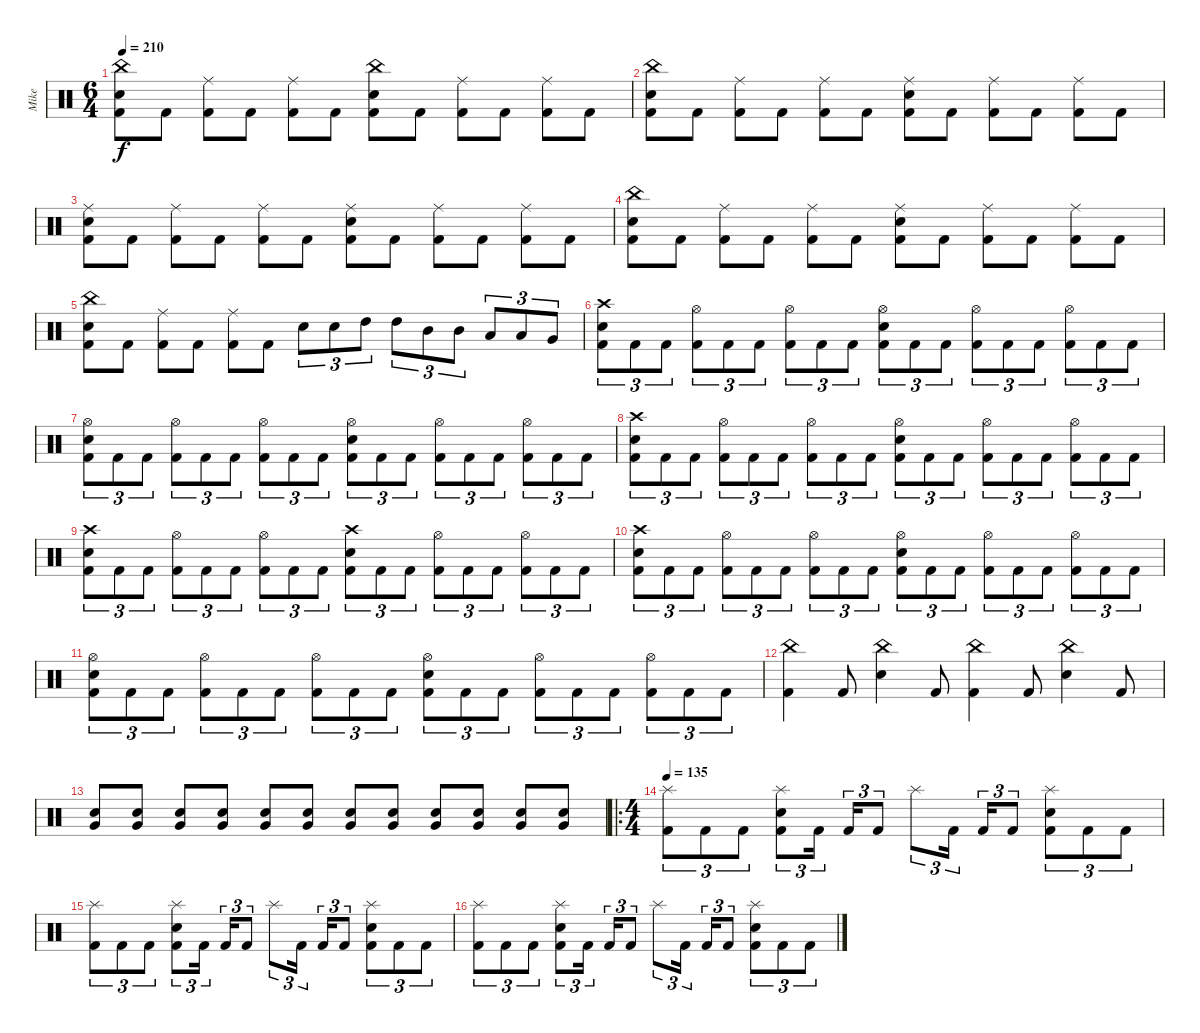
\track ("Mike" "Mike") {instrument percussion}
\staff {score}
\articulation defaults
\ts (6 4)
\tempo 210
\clef neutral
\ks c
("Kick (hit) 2" "Electric Snare (hit)" "China (hit)").8{dy f} "Kick (hit) 2".8 ("Kick (hit) 2" "Ride (middle)").8 "Kick (hit) 2".8 ("Kick (hit) 2" "Ride (middle)").8 "Kick (hit) 2".8 ("Kick (hit) 2" "Electric Snare (hit)" "China (hit)").8 "Kick (hit) 2".8 ("Kick (hit) 2" "Ride (middle)").8 "Kick (hit) 2".8 ("Kick (hit) 2" "Ride (middle)").8 "Kick (hit) 2".8 |
("Kick (hit) 2" "Electric Snare (hit)" "China (hit)").8 "Kick (hit) 2".8 ("Kick (hit) 2" "Ride (middle)").8 "Kick (hit) 2".8 ("Kick (hit) 2" "Ride (middle)").8 "Kick (hit) 2".8 ("Kick (hit) 2" "Electric Snare (hit)" "Ride (middle)").8 "Kick (hit) 2".8 ("Kick (hit) 2" "Ride (middle)").8 "Kick (hit) 2".8 ("Kick (hit) 2" "Ride (middle)").8 "Kick (hit) 2".8 |
("Kick (hit) 2" "Electric Snare (hit)" "Ride (middle)").8 "Kick (hit) 2".8 ("Kick (hit) 2" "Ride (middle)").8 "Kick (hit) 2".8 ("Kick (hit) 2" "Ride (middle)").8 "Kick (hit) 2".8 ("Kick (hit) 2" "Electric Snare (hit)" "Ride (middle)").8 "Kick (hit) 2".8 ("Kick (hit) 2" "Ride (middle)").8 "Kick (hit) 2".8 ("Kick (hit) 2" "Ride (middle)").8 "Kick (hit) 2".8 |
("Kick (hit) 2" "Electric Snare (hit)" "China (hit)").8 "Kick (hit) 2".8 ("Kick (hit) 2" "Ride (middle)").8 "Kick (hit) 2".8 ("Kick (hit) 2" "Ride (middle)").8 "Kick (hit) 2".8 ("Kick (hit) 2" "Electric Snare (hit)" "Ride (middle)").8 "Kick (hit) 2".8 ("Kick (hit) 2" "Ride (middle)").8 "Kick (hit) 2".8 ("Kick (hit) 2" "Ride (middle)").8 "Kick (hit) 2".8 |
("Kick (hit) 2" "Electric Snare (hit)" "China (hit)").8 "Kick (hit) 2".8 ("Kick (hit) 2" "Ride (middle)").8 "Kick (hit) 2".8 ("Kick (hit) 2" "Ride (middle)").8 "Kick (hit) 2".8 "Electric Snare (hit)".8{tu (3 2)} "Electric Snare (hit)".8{tu (3 2)} "High Tom (hit)".8{tu (3 2)} "High Tom (hit)".8{tu (3 2)} "Mid Tom (hit)".8{tu (3 2)} "Mid Tom (hit)".8{tu (3 2)} "Low Tom (hit)".8{tu (3 2)} "Low Tom (hit)".8{tu (3 2)} "Very Low Tom (hit)".8{tu (3 2)} |
("Kick (hit) 2" "Electric Snare (hit)" "Crash high (hit)").8{tu (3 2)} "Kick (hit) 2".8{tu (3 2)} "Kick (hit) 2".8{tu (3 2)} ("Kick (hit) 2" "Hi-Hat (open)").8{tu (3 2)} "Kick (hit) 2".8{tu (3 2)} "Kick (hit) 2".8{tu (3 2)} ("Kick (hit) 2" "Hi-Hat (open)").8{tu (3 2)} "Kick (hit) 2".8{tu (3 2)} "Kick (hit) 2".8{tu (3 2)} ("Kick (hit) 2" "Electric Snare (hit)" "Hi-Hat (open)").8{tu (3 2)} "Kick (hit) 2".8{tu (3 2)} "Kick (hit) 2".8{tu (3 2)} ("Kick (hit) 2" "Hi-Hat (open)").8{tu (3 2)} "Kick (hit) 2".8{tu (3 2)} "Kick (hit) 2".8{tu (3 2)} ("Kick (hit) 2" "Hi-Hat (open)").8{tu (3 2)} "Kick (hit) 2".8{tu (3 2)} "Kick (hit) 2".8{tu (3 2)} |
("Kick (hit) 2" "Electric Snare (hit)" "Hi-Hat (open)").8{tu (3 2)} "Kick (hit) 2".8{tu (3 2)} "Kick (hit) 2".8{tu (3 2)} ("Kick (hit) 2" "Hi-Hat (open)").8{tu (3 2)} "Kick (hit) 2".8{tu (3 2)} "Kick (hit) 2".8{tu (3 2)} ("Kick (hit) 2" "Hi-Hat (open)").8{tu (3 2)} "Kick (hit) 2".8{tu (3 2)} "Kick (hit) 2".8{tu (3 2)} ("Kick (hit) 2" "Electric Snare (hit)" "Hi-Hat (open)").8{tu (3 2)} "Kick (hit) 2".8{tu (3 2)} "Kick (hit) 2".8{tu (3 2)} ("Kick (hit) 2" "Hi-Hat (open)").8{tu (3 2)} "Kick (hit) 2".8{tu (3 2)} "Kick (hit) 2".8{tu (3 2)} ("Kick (hit) 2" "Hi-Hat (open)").8{tu (3 2)} "Kick (hit) 2".8{tu (3 2)} "Kick (hit) 2".8{tu (3 2)} |
("Kick (hit) 2" "Electric Snare (hit)" "Crash high (hit)").8{tu (3 2)} "Kick (hit) 2".8{tu (3 2)} "Kick (hit) 2".8{tu (3 2)} ("Kick (hit) 2" "Hi-Hat (open)").8{tu (3 2)} "Kick (hit) 2".8{tu (3 2)} "Kick (hit) 2".8{tu (3 2)} ("Kick (hit) 2" "Hi-Hat (open)").8{tu (3 2)} "Kick (hit) 2".8{tu (3 2)} "Kick (hit) 2".8{tu (3 2)} ("Kick (hit) 2" "Electric Snare (hit)" "Hi-Hat (open)").8{tu (3 2)} "Kick (hit) 2".8{tu (3 2)} "Kick (hit) 2".8{tu (3 2)} ("Kick (hit) 2" "Hi-Hat (open)").8{tu (3 2)} "Kick (hit) 2".8{tu (3 2)} "Kick (hit) 2".8{tu (3 2)} ("Kick (hit) 2" "Hi-Hat (open)").8{tu (3 2)} "Kick (hit) 2".8{tu (3 2)} "Kick (hit) 2".8{tu (3 2)} |
("Kick (hit) 2" "Electric Snare (hit)" "Crash high (hit)").8{tu (3 2)} "Kick (hit) 2".8{tu (3 2)} "Kick (hit) 2".8{tu (3 2)} ("Kick (hit) 2" "Hi-Hat (open)").8{tu (3 2)} "Kick (hit) 2".8{tu (3 2)} "Kick (hit) 2".8{tu (3 2)} ("Kick (hit) 2" "Hi-Hat (open)").8{tu (3 2)} "Kick (hit) 2".8{tu (3 2)} "Kick (hit) 2".8{tu (3 2)} ("Kick (hit) 2" "Electric Snare (hit)" "Crash high (hit)").8{tu (3 2)} "Kick (hit) 2".8{tu (3 2)} "Kick (hit) 2".8{tu (3 2)} ("Kick (hit) 2" "Hi-Hat (open)").8{tu (3 2)} "Kick (hit) 2".8{tu (3 2)} "Kick (hit) 2".8{tu (3 2)} ("Kick (hit) 2" "Hi-Hat (open)").8{tu (3 2)} "Kick (hit) 2".8{tu (3 2)} "Kick (hit) 2".8{tu (3 2)} |
("Kick (hit) 2" "Electric Snare (hit)" "Crash high (hit)").8{tu (3 2)} "Kick (hit) 2".8{tu (3 2)} "Kick (hit) 2".8{tu (3 2)} ("Kick (hit) 2" "Hi-Hat (open)").8{tu (3 2)} "Kick (hit) 2".8{tu (3 2)} "Kick (hit) 2".8{tu (3 2)} ("Kick (hit) 2" "Hi-Hat (open)").8{tu (3 2)} "Kick (hit) 2".8{tu (3 2)} "Kick (hit) 2".8{tu (3 2)} ("Kick (hit) 2" "Electric Snare (hit)" "Hi-Hat (open)").8{tu (3 2)} "Kick (hit) 2".8{tu (3 2)} "Kick (hit) 2".8{tu (3 2)} ("Kick (hit) 2" "Hi-Hat (open)").8{tu (3 2)} "Kick (hit) 2".8{tu (3 2)} "Kick (hit) 2".8{tu (3 2)} ("Kick (hit) 2" "Hi-Hat (open)").8{tu (3 2)} "Kick (hit) 2".8{tu (3 2)} "Kick (hit) 2".8{tu (3 2)} |
("Kick (hit) 2" "Electric Snare (hit)" "Hi-Hat (open)").8{tu (3 2)} "Kick (hit) 2".8{tu (3 2)} "Kick (hit) 2".8{tu (3 2)} ("Kick (hit) 2" "Hi-Hat (open)").8{tu (3 2)} "Kick (hit) 2".8{tu (3 2)} "Kick (hit) 2".8{tu (3 2)} ("Kick (hit) 2" "Hi-Hat (open)").8{tu (3 2)} "Kick (hit) 2".8{tu (3 2)} "Kick (hit) 2".8{tu (3 2)} ("Kick (hit) 2" "Electric Snare (hit)" "Hi-Hat (open)").8{tu (3 2)} "Kick (hit) 2".8{tu (3 2)} "Kick (hit) 2".8{tu (3 2)} ("Kick (hit) 2" "Hi-Hat (open)").8{tu (3 2)} "Kick (hit) 2".8{tu (3 2)} "Kick (hit) 2".8{tu (3 2)} ("Kick (hit) 2" "Hi-Hat (open)").8{tu (3 2)} "Kick (hit) 2".8{tu (3 2)} "Kick (hit) 2".8{tu (3 2)} |
("Kick (hit) 2" "China (hit)").4 "Kick (hit) 2".8 ("Electric Snare (hit)" "China (hit)").4 "Kick (hit) 2".8 ("Kick (hit) 2" "China (hit)").4 "Kick (hit) 2".8 ("Electric Snare (hit)" "China (hit)").4 "Kick (hit) 2".8 |
("Electric Snare (hit)" "Very Low Tom (hit)").8 ("Electric Snare (hit)" "Very Low Tom (hit)").8 ("Electric Snare (hit)" "Very Low Tom (hit)").8 ("Electric Snare (hit)" "Very Low Tom (hit)").8 ("Electric Snare (hit)" "Very Low Tom (hit)").8 ("Electric Snare (hit)" "Very Low Tom (hit)").8 ("Electric Snare (hit)" "Very Low Tom (hit)").8 ("Electric Snare (hit)" "Very Low Tom (hit)").8 ("Electric Snare (hit)" "Very Low Tom (hit)").8 ("Electric Snare (hit)" "Very Low Tom (hit)").8 ("Electric Snare (hit)" "Very Low Tom (hit)").8 ("Electric Snare (hit)" "Very Low Tom (hit)").8 |
\ro
\ts (4 4)
\tempo 135
("Kick (hit) 2" "Splash (hit)").8{tu (3 2)} "Kick (hit) 2".8{tu (3 2)} "Kick (hit) 2".8{tu (3 2)} ("Kick (hit) 2" "Electric Snare (hit)" "Splash (hit)").8{tu (3 2)} "Kick (hit) 2".16{tu (3 2) beam splitsecondary} "Kick (hit) 2".16{tu (3 2)} "Kick (hit) 2".8{tu (3 2)} "Splash (hit)".8{tu (3 2)} "Kick (hit) 2".16{tu (3 2) beam splitsecondary} "Kick (hit) 2".16{tu (3 2)} "Kick (hit) 2".8{tu (3 2)} ("Kick (hit) 2" "Electric Snare (hit)" "Splash (hit)").8{tu (3 2)} "Kick (hit) 2".8{tu (3 2)} "Kick (hit) 2".8{tu (3 2)} |
("Kick (hit) 2" "Splash (hit)").8{tu (3 2)} "Kick (hit) 2".8{tu (3 2)} "Kick (hit) 2".8{tu (3 2)} ("Kick (hit) 2" "Electric Snare (hit)" "Splash (hit)").8{tu (3 2)} "Kick (hit) 2".16{tu (3 2) beam splitsecondary} "Kick (hit) 2".16{tu (3 2)} "Kick (hit) 2".8{tu (3 2)} "Splash (hit)".8{tu (3 2)} "Kick (hit) 2".16{tu (3 2) beam splitsecondary} "Kick (hit) 2".16{tu (3 2)} "Kick (hit) 2".8{tu (3 2)} ("Kick (hit) 2" "Electric Snare (hit)" "Splash (hit)").8{tu (3 2)} "Kick (hit) 2".8{tu (3 2)} "Kick (hit) 2".8{tu (3 2)} |
("Kick (hit) 2" "Splash (hit)").8{tu (3 2)} "Kick (hit) 2".8{tu (3 2)} "Kick (hit) 2".8{tu (3 2)} ("Kick (hit) 2" "Electric Snare (hit)" "Splash (hit)").8{tu (3 2)} "Kick (hit) 2".16{tu (3 2) beam splitsecondary} "Kick (hit) 2".16{tu (3 2)} "Kick (hit) 2".8{tu (3 2)} "Splash (hit)".8{tu (3 2)} "Kick (hit) 2".16{tu (3 2) beam splitsecondary} "Kick (hit) 2".16{tu (3 2)} "Kick (hit) 2".8{tu (3 2)} ("Kick (hit) 2" "Electric Snare (hit)" "Splash (hit)").8{tu (3 2)} "Kick (hit) 2".8{tu (3 2)} "Kick (hit) 2".8{tu (3 2)}
